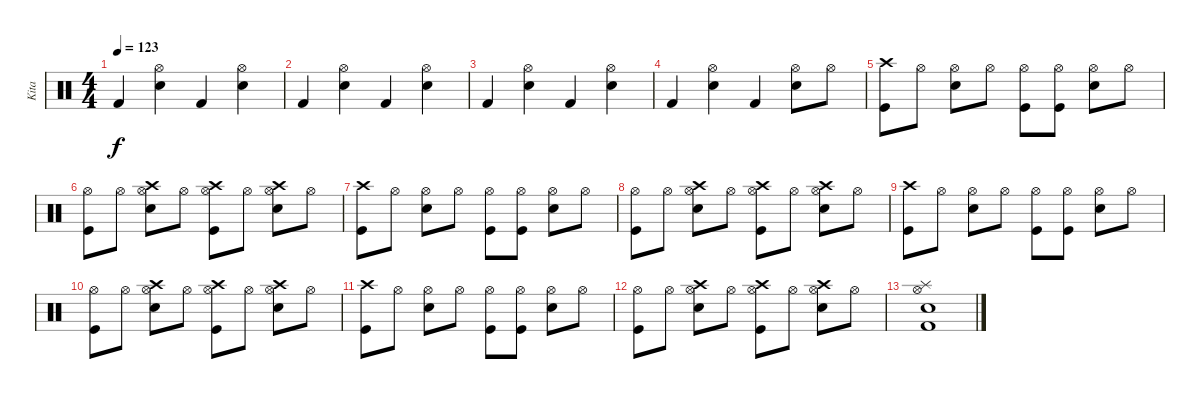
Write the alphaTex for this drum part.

\track ("Kita" "Kita") {instrument percussion}
\staff {score}
\articulation defaults
\ts (4 4)
\tempo 123
\clef neutral
\ks c "Kick (hit) 2".4{dy f}
("Hi-Hat (open)" "Snare (hit) 2").4 "Kick (hit) 2".4 ("Hi-Hat (open)" "Snare (hit) 2").4 |
"Kick (hit) 2".4 ("Hi-Hat (open)" "Snare (hit) 2").4 "Kick (hit) 2".4 ("Hi-Hat (open)" "Snare (hit) 2").4 |
"Kick (hit) 2".4 ("Hi-Hat (open)" "Snare (hit) 2").4 "Kick (hit) 2".4 ("Hi-Hat (open)" "Snare (hit) 2").4 |
"Kick (hit) 2".4 ("Hi-Hat (open)" "Snare (hit) 2").4 "Kick (hit) 2".4 ("Hi-Hat (open)" "Snare (hit) 2").8 "Hi-Hat (open)".8 |
("Crash high (hit)" "Kick (hit)").8 "Hi-Hat (open)".8 ("Hi-Hat (open)" "Snare (hit) 2").8 "Hi-Hat (open)".8 ("Hi-Hat (open)" "Kick (hit)").8 ("Hi-Hat (open)" "Kick (hit)").8 ("Hi-Hat (open)" "Snare (hit) 2").8 "Hi-Hat (open)".8 |
("Hi-Hat (open)" "Kick (hit)").8 "Hi-Hat (open)".8 ("Hi-Hat (open)" "Snare (hit) 2" "Crash high (hit)").8 "Hi-Hat (open)".8 ("Hi-Hat (open)" "Kick (hit)" "Crash high (hit)").8 "Hi-Hat (open)".8 ("Hi-Hat (open)" "Snare (hit) 2" "Crash high (hit)").8 "Hi-Hat (open)".8 |
("Crash high (hit)" "Kick (hit)").8 "Hi-Hat (open)".8 ("Hi-Hat (open)" "Snare (hit) 2").8 "Hi-Hat (open)".8 ("Hi-Hat (open)" "Kick (hit)").8 ("Hi-Hat (open)" "Kick (hit)").8 ("Hi-Hat (open)" "Snare (hit) 2").8 "Hi-Hat (open)".8 |
("Hi-Hat (open)" "Kick (hit)").8 "Hi-Hat (open)".8 ("Hi-Hat (open)" "Snare (hit) 2" "Crash high (hit)").8 "Hi-Hat (open)".8 ("Hi-Hat (open)" "Kick (hit)" "Crash high (hit)").8 "Hi-Hat (open)".8 ("Hi-Hat (open)" "Snare (hit) 2" "Crash high (hit)").8 "Hi-Hat (open)".8 |
("Crash high (hit)" "Kick (hit)").8 "Hi-Hat (open)".8 ("Hi-Hat (open)" "Snare (hit) 2").8 "Hi-Hat (open)".8 ("Hi-Hat (open)" "Kick (hit)").8 ("Hi-Hat (open)" "Kick (hit)").8 ("Hi-Hat (open)" "Snare (hit) 2").8 "Hi-Hat (open)".8 |
("Hi-Hat (open)" "Kick (hit)").8 "Hi-Hat (open)".8 ("Hi-Hat (open)" "Snare (hit) 2" "Crash high (hit)").8 "Hi-Hat (open)".8 ("Hi-Hat (open)" "Kick (hit)" "Crash high (hit)").8 "Hi-Hat (open)".8 ("Hi-Hat (open)" "Snare (hit) 2" "Crash high (hit)").8 "Hi-Hat (open)".8 |
("Crash high (hit)" "Kick (hit)").8 "Hi-Hat (open)".8 ("Hi-Hat (open)" "Snare (hit) 2").8 "Hi-Hat (open)".8 ("Hi-Hat (open)" "Kick (hit)").8 ("Hi-Hat (open)" "Kick (hit)").8 ("Hi-Hat (open)" "Snare (hit) 2").8 "Hi-Hat (open)".8 |
("Hi-Hat (open)" "Kick (hit)").8 "Hi-Hat (open)".8 ("Hi-Hat (open)" "Snare (hit) 2" "Crash high (hit)").8 "Hi-Hat (open)".8 ("Hi-Hat (open)" "Kick (hit)" "Crash high (hit)").8 "Hi-Hat (open)".8 ("Hi-Hat (open)" "Snare (hit) 2" "Crash high (hit)").8 "Hi-Hat (open)".8 |
("Kick (hit) 2" "Snare (hit) 2" "Hi-Hat (open)" "Splash (hit)").1
